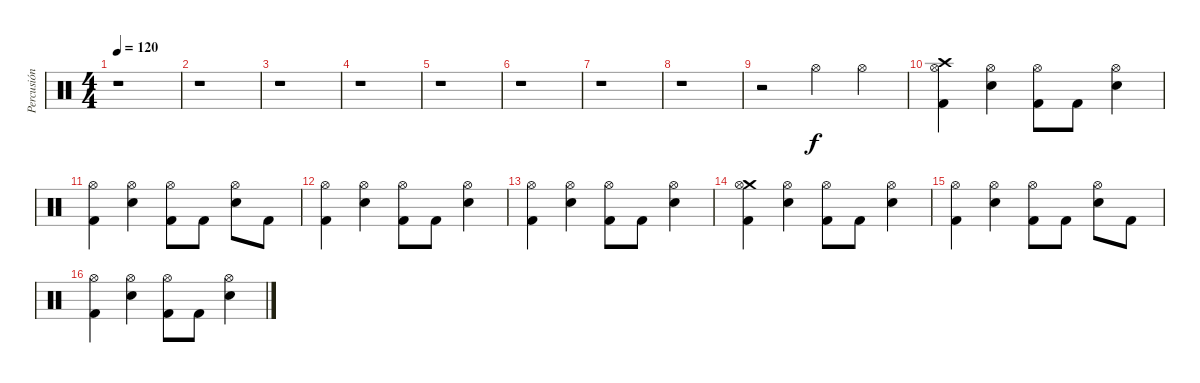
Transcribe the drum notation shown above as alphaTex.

\track ("Percusión" "Percusión") {instrument percussion}
\staff {score}
\articulation defaults
\ts (4 4)
\tempo 120
\clef neutral
\ks c
r.1{dy f} |
r.1 |
r.1 |
r.1 |
r.1 |
r.1 |
r.1 |
r.1 |
r.2 "Hi-Hat (open)".4 "Hi-Hat (open)".4 |
("Crash high (hit)" "Hi-Hat (open)" "Kick (hit) 2").4 ("Hi-Hat (open)" "Electric Snare (hit)").4 ("Hi-Hat (open)" "Kick (hit) 2").8 "Kick (hit) 2".8 ("Hi-Hat (open)" "Electric Snare (hit)").4 |
("Hi-Hat (open)" "Kick (hit) 2").4 ("Hi-Hat (open)" "Electric Snare (hit)").4 ("Hi-Hat (open)" "Kick (hit) 2").8 "Kick (hit) 2".8 ("Hi-Hat (open)" "Electric Snare (hit)").8 "Kick (hit) 2".8 |
("Hi-Hat (open)" "Kick (hit) 2").4 ("Hi-Hat (open)" "Electric Snare (hit)").4 ("Hi-Hat (open)" "Kick (hit) 2").8 "Kick (hit) 2".8 ("Hi-Hat (open)" "Electric Snare (hit)").4 |
("Hi-Hat (open)" "Kick (hit) 2").4 ("Hi-Hat (open)" "Electric Snare (hit)").4 ("Hi-Hat (open)" "Kick (hit) 2").8 "Kick (hit) 2".8 ("Hi-Hat (open)" "Electric Snare (hit)").4 |
("Crash medium (hit)" "Hi-Hat (open)" "Kick (hit) 2").4 ("Hi-Hat (open)" "Electric Snare (hit)").4 ("Hi-Hat (open)" "Kick (hit) 2").8 "Kick (hit) 2".8 ("Hi-Hat (open)" "Electric Snare (hit)").4 |
("Hi-Hat (open)" "Kick (hit) 2").4 ("Hi-Hat (open)" "Electric Snare (hit)").4 ("Hi-Hat (open)" "Kick (hit) 2").8 "Kick (hit) 2".8 ("Hi-Hat (open)" "Electric Snare (hit)").8 "Kick (hit) 2".8 |
("Hi-Hat (open)" "Kick (hit) 2").4 ("Hi-Hat (open)" "Electric Snare (hit)").4 ("Hi-Hat (open)" "Kick (hit) 2").8 "Kick (hit) 2".8 ("Hi-Hat (open)" "Electric Snare (hit)").4
